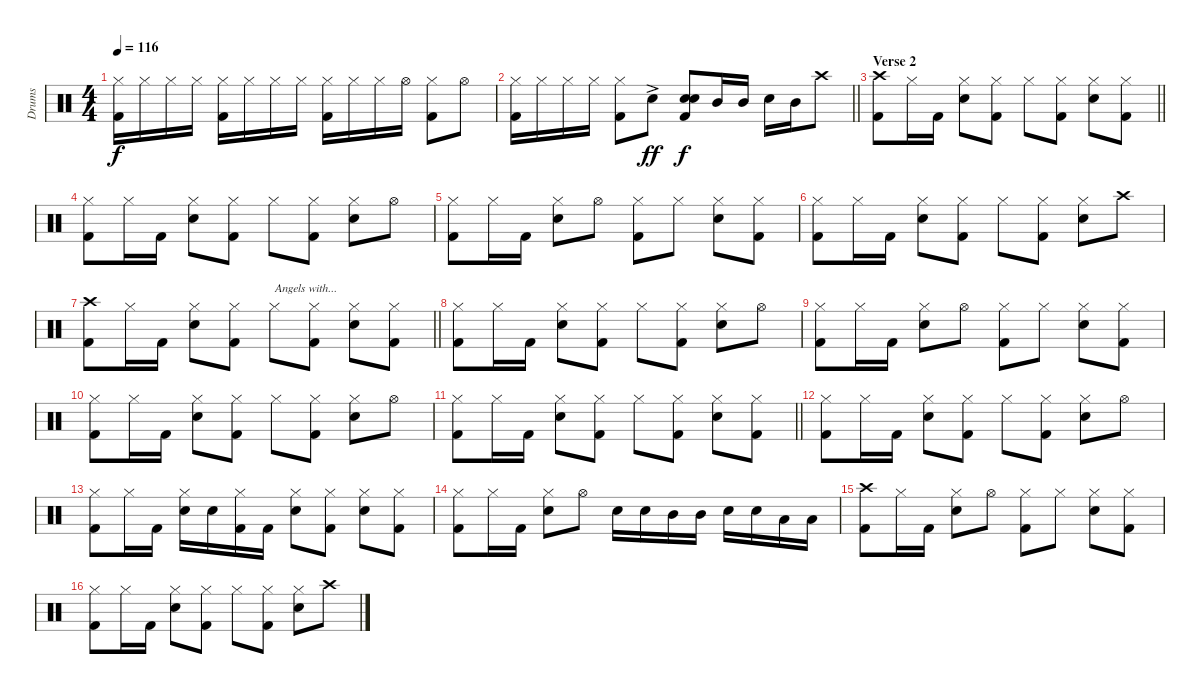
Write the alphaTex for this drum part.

\track ("Drums" "Drums") {instrument percussion}
\staff {score}
\articulation defaults
\ts (4 4)
\tempo 116
\clef neutral
\ks c
("Hi-Hat (closed)" "Kick (hit) 2").16{dy f} "Hi-Hat (closed)".16 "Hi-Hat (closed)".16 "Hi-Hat (closed)".16 ("Hi-Hat (closed)" "Kick (hit) 2").16 "Hi-Hat (closed)".16 "Hi-Hat (closed)".16 "Hi-Hat (closed)".16 ("Hi-Hat (closed)" "Kick (hit) 2").16 "Hi-Hat (closed)".16 "Hi-Hat (closed)".16 "Hi-Hat (open)".16 ("Hi-Hat (closed)" "Kick (hit) 2").8 "Hi-Hat (open)".8 |
\barLineRight lightlight
("Hi-Hat (closed)" "Kick (hit) 2").16 "Hi-Hat (closed)".16 "Hi-Hat (closed)".16 "Hi-Hat (closed)".16 ("Hi-Hat (closed)" "Kick (hit) 2").8 "Snare (hit) 2"{ac}.8{dy ff} ("Snare (hit) 2" "Snare (hit) 2" "Kick (hit) 2").8{dy f} "Mid Tom (hit)".16 "Mid Tom (hit)".16 "Snare (hit) 2".16 "Mid Tom (hit)".16 "Crash high (hit)".8 |
\section ("" "Verse 2")
\barLineRight lightlight
("Crash high (hit)" "Kick (hit) 2").8 "Hi-Hat (closed)".16 "Kick (hit) 2".16 ("Hi-Hat (closed)" "Snare (hit) 2").8 ("Hi-Hat (closed)" "Kick (hit) 2").8 "Hi-Hat (closed)".8 ("Hi-Hat (closed)" "Kick (hit) 2").8 ("Hi-Hat (closed)" "Snare (hit) 2").8 ("Hi-Hat (closed)" "Kick (hit) 2").8 |
\section ("" "")
("Hi-Hat (closed)" "Kick (hit) 2").8 "Hi-Hat (closed)".16 "Kick (hit) 2".16 ("Hi-Hat (closed)" "Snare (hit) 2").8 ("Hi-Hat (closed)" "Kick (hit) 2").8 "Hi-Hat (closed)".8 ("Hi-Hat (closed)" "Kick (hit) 2").8 ("Hi-Hat (closed)" "Snare (hit) 2").8 "Hi-Hat (open)".8 |
("Hi-Hat (closed)" "Kick (hit) 2").8 "Hi-Hat (closed)".16 "Kick (hit) 2".16 ("Hi-Hat (closed)" "Snare (hit) 2").8 "Hi-Hat (open)".8 ("Hi-Hat (closed)" "Kick (hit) 2").8 "Hi-Hat (closed)".8 ("Hi-Hat (closed)" "Snare (hit) 2").8 ("Hi-Hat (closed)" "Kick (hit) 2").8 |
("Hi-Hat (closed)" "Kick (hit) 2").8 "Hi-Hat (closed)".16 "Kick (hit) 2".16 ("Hi-Hat (closed)" "Snare (hit) 2").8 ("Hi-Hat (closed)" "Kick (hit) 2").8 "Hi-Hat (closed)".8 ("Hi-Hat (closed)" "Kick (hit) 2").8 ("Hi-Hat (closed)" "Snare (hit) 2").8 "Crash high (hit)".8 |
\barLineRight lightlight
("Crash high (hit)" "Kick (hit) 2").8 "Hi-Hat (closed)".16 "Kick (hit) 2".16 ("Hi-Hat (closed)" "Snare (hit) 2").8 ("Hi-Hat (closed)" "Kick (hit) 2").8 "Hi-Hat (closed)".8{txt "Angels with..."} ("Hi-Hat (closed)" "Kick (hit) 2").8 ("Hi-Hat (closed)" "Snare (hit) 2").8 ("Hi-Hat (closed)" "Kick (hit) 2").8 |
("Hi-Hat (closed)" "Kick (hit) 2").8 "Hi-Hat (closed)".16 "Kick (hit) 2".16 ("Hi-Hat (closed)" "Snare (hit) 2").8 ("Hi-Hat (closed)" "Kick (hit) 2").8 "Hi-Hat (closed)".8 ("Hi-Hat (closed)" "Kick (hit) 2").8 ("Hi-Hat (closed)" "Snare (hit) 2").8 "Hi-Hat (open)".8 |
("Hi-Hat (closed)" "Kick (hit) 2").8 "Hi-Hat (closed)".16 "Kick (hit) 2".16 ("Hi-Hat (closed)" "Snare (hit) 2").8 "Hi-Hat (open)".8 ("Hi-Hat (closed)" "Kick (hit) 2").8 "Hi-Hat (closed)".8 ("Hi-Hat (closed)" "Snare (hit) 2").8 ("Hi-Hat (closed)" "Kick (hit) 2").8 |
("Hi-Hat (closed)" "Kick (hit) 2").8 "Hi-Hat (closed)".16 "Kick (hit) 2".16 ("Hi-Hat (closed)" "Snare (hit) 2").8 ("Hi-Hat (closed)" "Kick (hit) 2").8 "Hi-Hat (closed)".8 ("Hi-Hat (closed)" "Kick (hit) 2").8 ("Hi-Hat (closed)" "Snare (hit) 2").8 "Hi-Hat (open)".8 |
\barLineRight lightlight
("Hi-Hat (closed)" "Kick (hit) 2").8 "Hi-Hat (closed)".16 "Kick (hit) 2".16 ("Hi-Hat (closed)" "Snare (hit) 2").8 ("Hi-Hat (closed)" "Kick (hit) 2").8 "Hi-Hat (closed)".8 ("Hi-Hat (closed)" "Kick (hit) 2").8 ("Hi-Hat (closed)" "Snare (hit) 2").8 ("Hi-Hat (closed)" "Kick (hit) 2").8 |
("Hi-Hat (closed)" "Kick (hit) 2").8 "Hi-Hat (closed)".16 "Kick (hit) 2".16 ("Hi-Hat (closed)" "Snare (hit) 2").8 ("Hi-Hat (closed)" "Kick (hit) 2").8 "Hi-Hat (closed)".8 ("Hi-Hat (closed)" "Kick (hit) 2").8 ("Hi-Hat (closed)" "Snare (hit) 2").8 "Hi-Hat (open)".8 |
("Hi-Hat (closed)" "Kick (hit) 2").8 "Hi-Hat (closed)".16 "Kick (hit) 2".16 ("Hi-Hat (closed)" "Snare (hit) 2").16 "Snare (hit) 2".16 ("Hi-Hat (closed)" "Kick (hit) 2").16 "Kick (hit) 2".16 ("Hi-Hat (closed)" "Snare (hit) 2").8 ("Hi-Hat (closed)" "Kick (hit) 2").8 ("Hi-Hat (closed)" "Snare (hit) 2").8 ("Hi-Hat (closed)" "Kick (hit) 2").8 |
("Hi-Hat (closed)" "Kick (hit) 2").8 "Hi-Hat (closed)".16 "Kick (hit) 2".16 ("Hi-Hat (closed)" "Snare (hit) 2").8 "Hi-Hat (open)".8 "Snare (hit) 2".16 "Snare (hit) 2".16 "Mid Tom (hit)".16 "Mid Tom (hit)".16 "Snare (hit) 2".16 "Snare (hit) 2".16 "Low Floor Tom (hit)".16 "Low Floor Tom (hit)".16 |
("Crash high (hit)" "Kick (hit) 2").8 "Hi-Hat (closed)".16 "Kick (hit) 2".16 ("Hi-Hat (closed)" "Snare (hit) 2").8 "Hi-Hat (open)".8 ("Hi-Hat (closed)" "Kick (hit) 2").8 "Hi-Hat (closed)".8 ("Hi-Hat (closed)" "Snare (hit) 2").8 ("Hi-Hat (closed)" "Kick (hit) 2").8 |
("Hi-Hat (closed)" "Kick (hit) 2").8 "Hi-Hat (closed)".16 "Kick (hit) 2".16 ("Hi-Hat (closed)" "Snare (hit) 2").8 ("Hi-Hat (closed)" "Kick (hit) 2").8 "Hi-Hat (closed)".8 ("Hi-Hat (closed)" "Kick (hit) 2").8 ("Hi-Hat (closed)" "Snare (hit) 2").8 "Crash high (hit)".8
